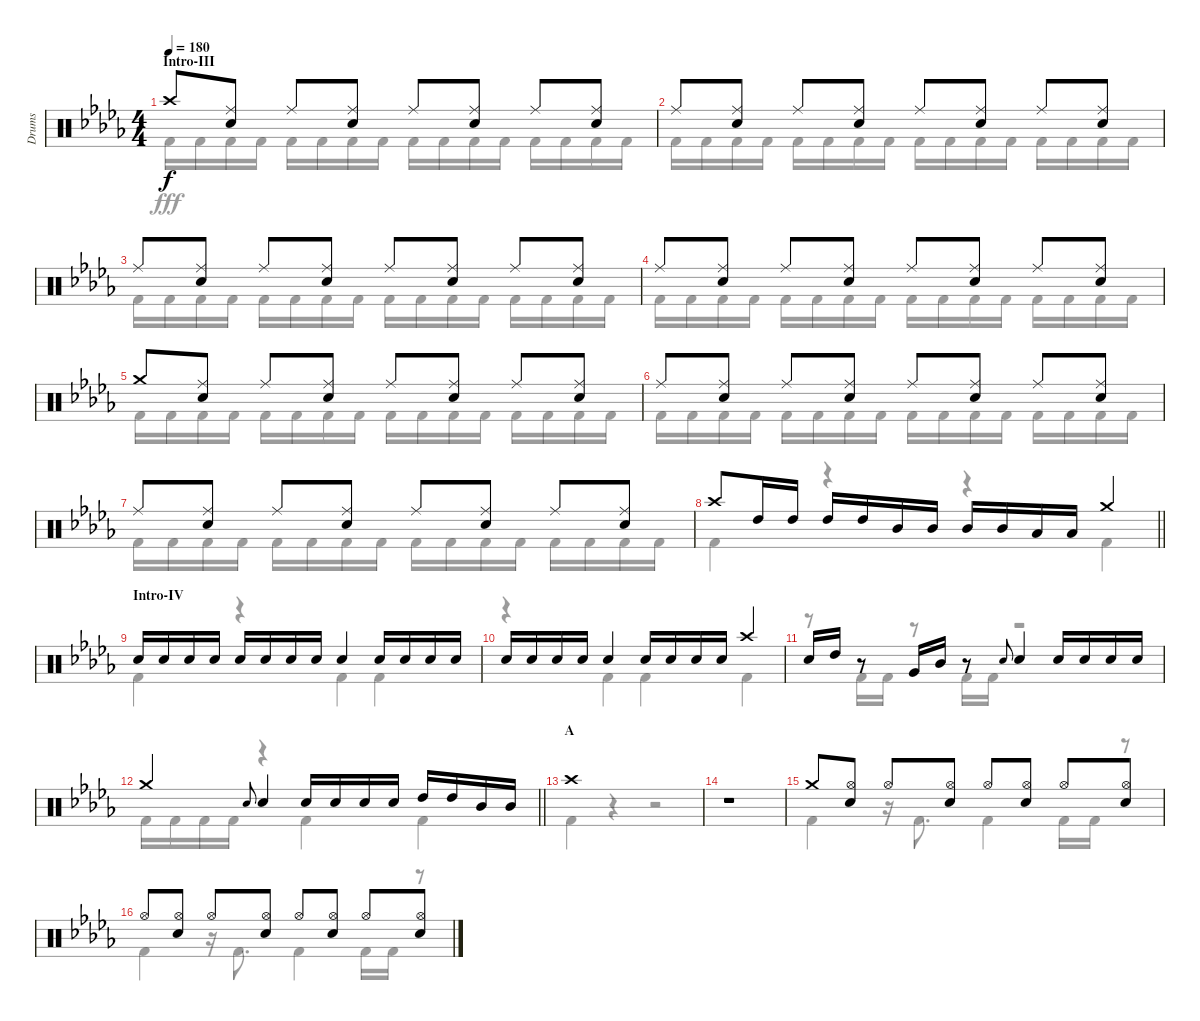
\track ("Drums" "Drums") {instrument percussion}
\staff {score}
\articulation defaults
\voice
\ts (4 4)
\section ("" "Intro-III")
\tempo 180
\clef neutral
\ks db "Crash high (hit)".8{dy f}
("Ride (middle)" "Snare (hit) 2").8 "Ride (middle)".8 ("Ride (middle)" "Snare (hit) 2").8 "Ride (middle)".8 ("Ride (middle)" "Snare (hit) 2").8 "Ride (middle)".8 ("Ride (middle)" "Snare (hit) 2").8 |
"Ride (middle)".8 ("Ride (middle)" "Snare (hit) 2").8 "Ride (middle)".8 ("Ride (middle)" "Snare (hit) 2").8 "Ride (middle)".8 ("Ride (middle)" "Snare (hit) 2").8 "Ride (middle)".8 ("Ride (middle)" "Snare (hit) 2").8 |
"Ride (middle)".8 ("Ride (middle)" "Snare (hit) 2").8 "Ride (middle)".8 ("Ride (middle)" "Snare (hit) 2").8 "Ride (middle)".8 ("Ride (middle)" "Snare (hit) 2").8 "Ride (middle)".8 ("Ride (middle)" "Snare (hit) 2").8 |
"Ride (middle)".8 ("Ride (middle)" "Snare (hit) 2").8 "Ride (middle)".8 ("Ride (middle)" "Snare (hit) 2").8 "Ride (middle)".8 ("Ride (middle)" "Snare (hit) 2").8 "Ride (middle)".8 ("Ride (middle)" "Snare (hit) 2").8 |
"Crash medium (hit)".8 ("Ride (middle)" "Snare (hit) 2").8 "Ride (middle)".8 ("Ride (middle)" "Snare (hit) 2").8 "Ride (middle)".8 ("Ride (middle)" "Snare (hit) 2").8 "Ride (middle)".8 ("Ride (middle)" "Snare (hit) 2").8 |
"Ride (middle)".8 ("Ride (middle)" "Snare (hit) 2").8 "Ride (middle)".8 ("Ride (middle)" "Snare (hit) 2").8 "Ride (middle)".8 ("Ride (middle)" "Snare (hit) 2").8 "Ride (middle)".8 ("Ride (middle)" "Snare (hit) 2").8 |
"Ride (middle)".8 ("Ride (middle)" "Snare (hit) 2").8 "Ride (middle)".8 ("Ride (middle)" "Snare (hit) 2").8 "Ride (middle)".8 ("Ride (middle)" "Snare (hit) 2").8 "Ride (middle)".8 ("Ride (middle)" "Snare (hit) 2").8 |
\barLineRight lightlight "Crash high (hit)".8 "High Tom (hit)".16 "High Tom (hit)".16 "High Tom (hit)".16 "High Tom (hit)".16 "Mid Tom (hit)".16 "Mid Tom (hit)".16 "Mid Tom (hit)".16 "Mid Tom (hit)".16 "Low Tom (hit)".16 "Low Tom (hit)".16 "Crash medium (hit)".4
|
\section ("" "Intro-IV")
"Snare (hit) 2".16 "Snare (hit) 2".16 "Snare (hit) 2".16 "Snare (hit) 2".16 "Snare (hit) 2".16 "Snare (hit) 2".16 "Snare (hit) 2".16 "Snare (hit) 2".16 "Snare (hit) 2".4 "Snare (hit) 2".16 "Snare (hit) 2".16 "Snare (hit) 2".16 "Snare (hit) 2".16 |
"Snare (hit) 2".16 "Snare (hit) 2".16 "Snare (hit) 2".16 "Snare (hit) 2".16 "Snare (hit) 2".4 "Snare (hit) 2".16 "Snare (hit) 2".16 "Snare (hit) 2".16 "Snare (hit) 2".16 "Crash high (hit)".4 |
"Snare (hit) 2".16 "High Tom (hit)".16 r.8 "Very Low Tom (hit)".16 "Mid Tom (hit)".16 r.8 "Snare (hit) 2".8{gr onbeat} "Snare (hit) 2".4 "Snare (hit) 2".16 "Snare (hit) 2".16 "Snare (hit) 2".16 "Snare (hit) 2".16 |
\barLineRight lightlight "Crash medium (hit)".4 "Snare (hit) 2".8{gr onbeat} "Snare (hit) 2".4 "Snare (hit) 2".16 "Snare (hit) 2".16 "Snare (hit) 2".16 "Snare (hit) 2".16 "High Tom (hit)".16 "High Tom (hit)".16 "Mid Tom (hit)".16 "Mid Tom (hit)".16
|
\section ("" "A")
"Crash high (hit)".1 |
r.1 |
"Crash medium (hit)".8 ("Hi-Hat (open)" "Snare (hit) 2").8 "Hi-Hat (open)".8 ("Hi-Hat (open)" "Snare (hit) 2").8 "Hi-Hat (open)".8 ("Hi-Hat (open)" "Snare (hit) 2").8 "Hi-Hat (open)".8 ("Hi-Hat (open)" "Snare (hit) 2").8 |
"Hi-Hat (open)".8 ("Hi-Hat (open)" "Snare (hit) 2").8 "Hi-Hat (open)".8 ("Hi-Hat (open)" "Snare (hit) 2").8 "Hi-Hat (open)".8 ("Hi-Hat (open)" "Snare (hit) 2").8 "Hi-Hat (open)".8 ("Hi-Hat (open)" "Snare (hit) 2").8
\voice
\clef neutral
\ottava regular
\simile none
\ks db "Kick (hit) 2".16{dy fff} "Kick (hit) 2".16 "Kick (hit) 2".16 "Kick (hit) 2".16 "Kick (hit) 2".16 "Kick (hit) 2".16 "Kick (hit) 2".16 "Kick (hit) 2".16 "Kick (hit) 2".16 "Kick (hit) 2".16 "Kick (hit) 2".16 "Kick (hit) 2".16 "Kick (hit) 2".16 "Kick (hit) 2".16 "Kick (hit) 2".16 "Kick (hit) 2".16
|
"Kick (hit) 2".16 "Kick (hit) 2".16 "Kick (hit) 2".16 "Kick (hit) 2".16 "Kick (hit) 2".16 "Kick (hit) 2".16 "Kick (hit) 2".16 "Kick (hit) 2".16 "Kick (hit) 2".16 "Kick (hit) 2".16 "Kick (hit) 2".16 "Kick (hit) 2".16 "Kick (hit) 2".16 "Kick (hit) 2".16 "Kick (hit) 2".16 "Kick (hit) 2".16 |
"Kick (hit) 2".16 "Kick (hit) 2".16 "Kick (hit) 2".16 "Kick (hit) 2".16 "Kick (hit) 2".16 "Kick (hit) 2".16 "Kick (hit) 2".16 "Kick (hit) 2".16 "Kick (hit) 2".16 "Kick (hit) 2".16 "Kick (hit) 2".16 "Kick (hit) 2".16 "Kick (hit) 2".16 "Kick (hit) 2".16 "Kick (hit) 2".16 "Kick (hit) 2".16 |
"Kick (hit) 2".16 "Kick (hit) 2".16 "Kick (hit) 2".16 "Kick (hit) 2".16 "Kick (hit) 2".16 "Kick (hit) 2".16 "Kick (hit) 2".16 "Kick (hit) 2".16 "Kick (hit) 2".16 "Kick (hit) 2".16 "Kick (hit) 2".16 "Kick (hit) 2".16 "Kick (hit) 2".16 "Kick (hit) 2".16 "Kick (hit) 2".16 "Kick (hit) 2".16 |
"Kick (hit) 2".16 "Kick (hit) 2".16 "Kick (hit) 2".16 "Kick (hit) 2".16 "Kick (hit) 2".16 "Kick (hit) 2".16 "Kick (hit) 2".16 "Kick (hit) 2".16 "Kick (hit) 2".16 "Kick (hit) 2".16 "Kick (hit) 2".16 "Kick (hit) 2".16 "Kick (hit) 2".16 "Kick (hit) 2".16 "Kick (hit) 2".16 "Kick (hit) 2".16 |
"Kick (hit) 2".16 "Kick (hit) 2".16 "Kick (hit) 2".16 "Kick (hit) 2".16 "Kick (hit) 2".16 "Kick (hit) 2".16 "Kick (hit) 2".16 "Kick (hit) 2".16 "Kick (hit) 2".16 "Kick (hit) 2".16 "Kick (hit) 2".16 "Kick (hit) 2".16 "Kick (hit) 2".16 "Kick (hit) 2".16 "Kick (hit) 2".16 "Kick (hit) 2".16 |
"Kick (hit) 2".16 "Kick (hit) 2".16 "Kick (hit) 2".16 "Kick (hit) 2".16 "Kick (hit) 2".16 "Kick (hit) 2".16 "Kick (hit) 2".16 "Kick (hit) 2".16 "Kick (hit) 2".16 "Kick (hit) 2".16 "Kick (hit) 2".16 "Kick (hit) 2".16 "Kick (hit) 2".16 "Kick (hit) 2".16 "Kick (hit) 2".16 "Kick (hit) 2".16 |
\barLineRight lightlight "Kick (hit) 2".4
r.4 r.4 "Kick (hit) 2".4 |
"Kick (hit) 2".4 r.4 "Kick (hit) 2".4 "Kick (hit) 2".4 |
r.4 "Kick (hit) 2".4 "Kick (hit) 2".4 "Kick (hit) 2".4 |
r.8 "Kick (hit) 2".16 "Kick (hit) 2".16 r.8 "Kick (hit) 2".16 "Kick (hit) 2".16 r.2 |
\barLineRight lightlight "Kick (hit) 2".16 "Kick (hit) 2".16 "Kick (hit) 2".16 "Kick (hit) 2".16
r.4 "Kick (hit) 2".4 "Kick (hit) 2".4 |
"Kick (hit) 2".4 r.4 r.2 |
r.1 |
"Kick (hit) 2".4 r.16 "Kick (hit) 2".8{d} "Kick (hit) 2".4 "Kick (hit) 2".16 "Kick (hit) 2".16 r.8 |
"Kick (hit) 2".4 r.16 "Kick (hit) 2".8{d} "Kick (hit) 2".4 "Kick (hit) 2".16 "Kick (hit) 2".16 r.8
